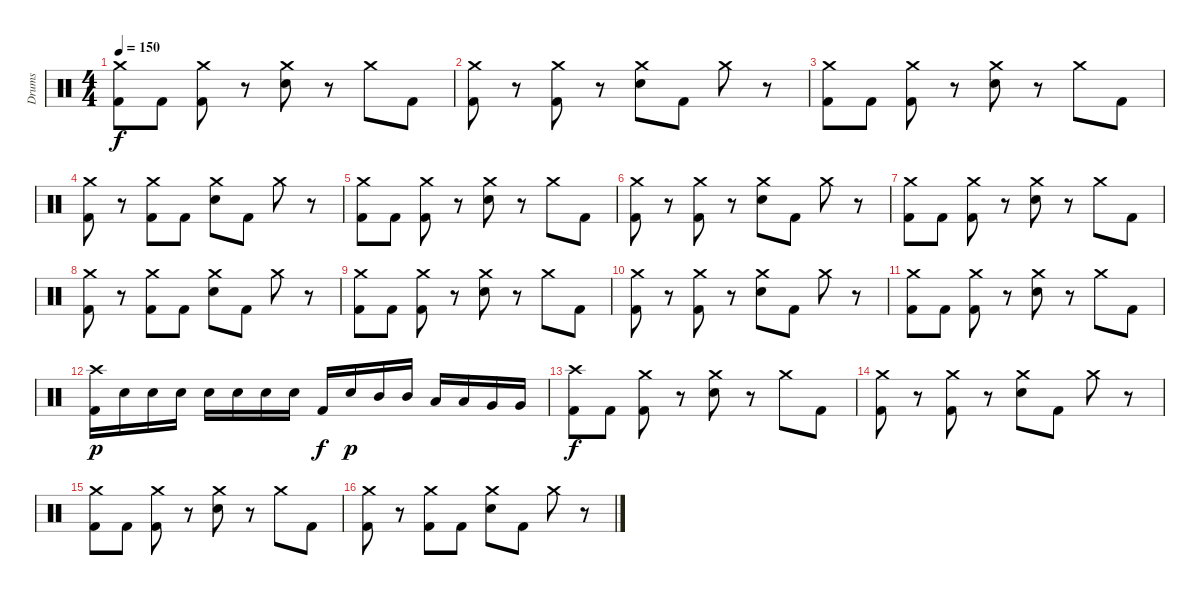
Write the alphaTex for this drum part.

\track ("Drums" "Drums") {instrument percussion}
\staff {score}
\articulation defaults
\ts (4 4)
\tempo 150
\clef neutral
\ks c
("Crash medium (hit)" "Kick (hit) 2").8{dy f} "Kick (hit) 2".8 ("Crash medium (hit)" "Kick (hit) 2").8 r.8 ("Crash medium (hit)" "Electric Snare (hit)").8 r.8 "Crash medium (hit)".8 "Kick (hit) 2".8 |
("Crash medium (hit)" "Kick (hit) 2").8 r.8 ("Crash medium (hit)" "Kick (hit) 2").8 r.8 ("Crash medium (hit)" "Electric Snare (hit)").8 "Kick (hit) 2".8 "Crash medium (hit)".8 r.8 |
("Crash medium (hit)" "Kick (hit) 2").8 "Kick (hit) 2".8 ("Crash medium (hit)" "Kick (hit) 2").8 r.8 ("Crash medium (hit)" "Electric Snare (hit)").8 r.8 "Crash medium (hit)".8 "Kick (hit) 2".8 |
("Crash medium (hit)" "Kick (hit) 2").8 r.8 ("Crash medium (hit)" "Kick (hit) 2").8 "Kick (hit) 2".8 ("Crash medium (hit)" "Electric Snare (hit)").8 "Kick (hit) 2".8 "Crash medium (hit)".8 r.8 |
("Crash medium (hit)" "Kick (hit) 2").8 "Kick (hit) 2".8 ("Crash medium (hit)" "Kick (hit) 2").8 r.8 ("Crash medium (hit)" "Electric Snare (hit)").8 r.8 "Crash medium (hit)".8 "Kick (hit) 2".8 |
("Crash medium (hit)" "Kick (hit) 2").8 r.8 ("Crash medium (hit)" "Kick (hit) 2").8 r.8 ("Crash medium (hit)" "Electric Snare (hit)").8 "Kick (hit) 2".8 "Crash medium (hit)".8 r.8 |
("Crash medium (hit)" "Kick (hit) 2").8 "Kick (hit) 2".8 ("Crash medium (hit)" "Kick (hit) 2").8 r.8 ("Crash medium (hit)" "Electric Snare (hit)").8 r.8 "Crash medium (hit)".8 "Kick (hit) 2".8 |
("Crash medium (hit)" "Kick (hit) 2").8 r.8 ("Crash medium (hit)" "Kick (hit) 2").8 "Kick (hit) 2".8 ("Crash medium (hit)" "Electric Snare (hit)").8 "Kick (hit) 2".8 "Crash medium (hit)".8 r.8 |
("Crash medium (hit)" "Kick (hit) 2").8 "Kick (hit) 2".8 ("Crash medium (hit)" "Kick (hit) 2").8 r.8 ("Crash medium (hit)" "Electric Snare (hit)").8 r.8 "Crash medium (hit)".8 "Kick (hit) 2".8 |
("Crash medium (hit)" "Kick (hit) 2").8 r.8 ("Crash medium (hit)" "Kick (hit) 2").8 r.8 ("Crash medium (hit)" "Electric Snare (hit)").8 "Kick (hit) 2".8 "Crash medium (hit)".8 r.8 |
("Crash medium (hit)" "Kick (hit) 2").8 "Kick (hit) 2".8 ("Crash medium (hit)" "Kick (hit) 2").8 r.8 ("Crash medium (hit)" "Electric Snare (hit)").8 r.8 "Crash medium (hit)".8 "Kick (hit) 2".8 |
("Crash high (hit)" "Kick (hit) 2").16{dy p} "Electric Snare (hit)".16 "Electric Snare (hit)".16 "Electric Snare (hit)".16 "Electric Snare (hit)".16 "Electric Snare (hit)".16 "Electric Snare (hit)".16 "Electric Snare (hit)".16 "Kick (hit) 2".16{dy f} "Electric Snare (hit)".16{dy p} "Mid Tom (hit)".16 "Mid Tom (hit)".16 "Low Tom (hit)".16 "Low Tom (hit)".16 "Very Low Tom (hit)".16 "Very Low Tom (hit)".16 |
("Crash high (hit)" "Kick (hit) 2").8{dy f} "Kick (hit) 2".8 ("Crash medium (hit)" "Kick (hit) 2").8 r.8 ("Crash medium (hit)" "Electric Snare (hit)").8 r.8 "Crash medium (hit)".8 "Kick (hit) 2".8 |
("Crash medium (hit)" "Kick (hit) 2").8 r.8 ("Crash medium (hit)" "Kick (hit) 2").8 r.8 ("Crash medium (hit)" "Electric Snare (hit)").8 "Kick (hit) 2".8 "Crash medium (hit)".8 r.8 |
("Crash medium (hit)" "Kick (hit) 2").8 "Kick (hit) 2".8 ("Crash medium (hit)" "Kick (hit) 2").8 r.8 ("Crash medium (hit)" "Electric Snare (hit)").8 r.8 "Crash medium (hit)".8 "Kick (hit) 2".8 |
("Crash medium (hit)" "Kick (hit) 2").8 r.8 ("Crash medium (hit)" "Kick (hit) 2").8 "Kick (hit) 2".8 ("Crash medium (hit)" "Electric Snare (hit)").8 "Kick (hit) 2".8 "Crash medium (hit)".8 r.8
